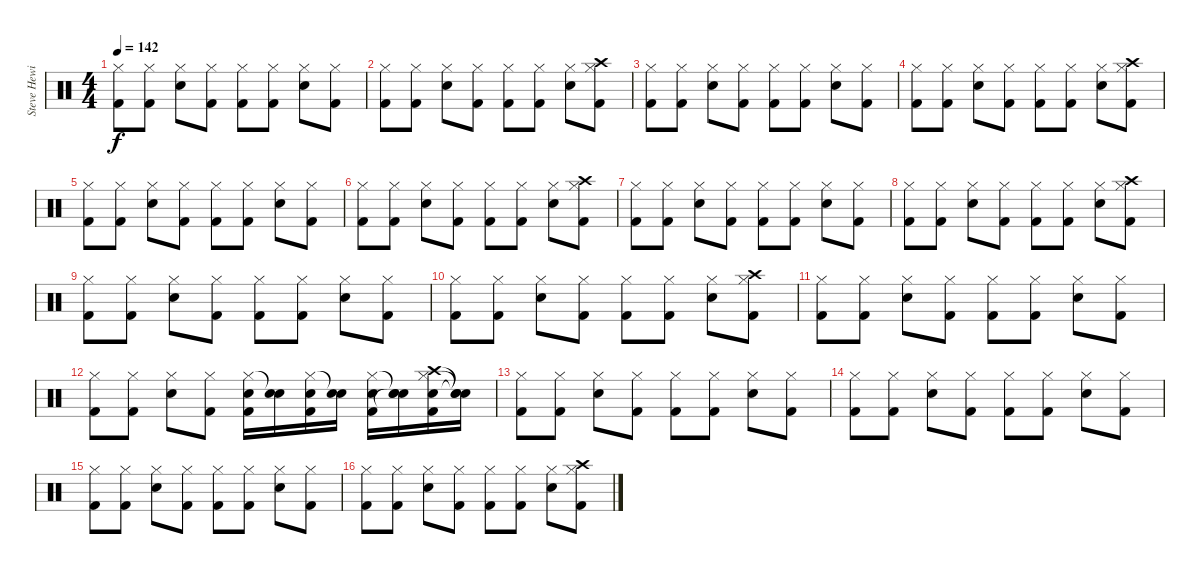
\track ("Steve Hewitt" "Steve Hewi") {instrument percussion}
\staff {score}
\articulation defaults
\ts (4 4)
\tempo 142
\clef neutral
\ks c
("Hi-Hat (closed)" "Kick (hit) 2").8{dy f} ("Hi-Hat (closed)" "Kick (hit) 2").8 ("Hi-Hat (closed)" "Snare (hit) 2").8 ("Hi-Hat (closed)" "Kick (hit) 2").8 ("Hi-Hat (closed)" "Kick (hit) 2").8 ("Hi-Hat (closed)" "Kick (hit) 2").8 ("Hi-Hat (closed)" "Snare (hit) 2").8 ("Hi-Hat (closed)" "Kick (hit) 2").8 |
("Hi-Hat (closed)" "Kick (hit) 2").8 ("Hi-Hat (closed)" "Kick (hit) 2").8 ("Hi-Hat (closed)" "Snare (hit) 2").8 ("Hi-Hat (closed)" "Kick (hit) 2").8 ("Hi-Hat (closed)" "Kick (hit) 2").8 ("Hi-Hat (closed)" "Kick (hit) 2").8 ("Hi-Hat (closed)" "Snare (hit) 2").8 ("Crash high (hit)" "Hi-Hat (closed)" "Kick (hit) 2").8 |
("Hi-Hat (closed)" "Kick (hit) 2").8 ("Hi-Hat (closed)" "Kick (hit) 2").8 ("Hi-Hat (closed)" "Snare (hit) 2").8 ("Hi-Hat (closed)" "Kick (hit) 2").8 ("Hi-Hat (closed)" "Kick (hit) 2").8 ("Hi-Hat (closed)" "Kick (hit) 2").8 ("Hi-Hat (closed)" "Snare (hit) 2").8 ("Hi-Hat (closed)" "Kick (hit) 2").8 |
("Hi-Hat (closed)" "Kick (hit) 2").8 ("Hi-Hat (closed)" "Kick (hit) 2").8 ("Hi-Hat (closed)" "Snare (hit) 2").8 ("Hi-Hat (closed)" "Kick (hit) 2").8 ("Hi-Hat (closed)" "Kick (hit) 2").8 ("Hi-Hat (closed)" "Kick (hit) 2").8 ("Hi-Hat (closed)" "Snare (hit) 2").8 ("Crash high (hit)" "Hi-Hat (closed)" "Kick (hit) 2").8 |
("Hi-Hat (closed)" "Kick (hit) 2").8 ("Hi-Hat (closed)" "Kick (hit) 2").8 ("Hi-Hat (closed)" "Snare (hit) 2").8 ("Hi-Hat (closed)" "Kick (hit) 2").8 ("Hi-Hat (closed)" "Kick (hit) 2").8 ("Hi-Hat (closed)" "Kick (hit) 2").8 ("Hi-Hat (closed)" "Snare (hit) 2").8 ("Hi-Hat (closed)" "Kick (hit) 2").8 |
("Hi-Hat (closed)" "Kick (hit) 2").8 ("Hi-Hat (closed)" "Kick (hit) 2").8 ("Hi-Hat (closed)" "Snare (hit) 2").8 ("Hi-Hat (closed)" "Kick (hit) 2").8 ("Hi-Hat (closed)" "Kick (hit) 2").8 ("Hi-Hat (closed)" "Kick (hit) 2").8 ("Hi-Hat (closed)" "Snare (hit) 2").8 ("Crash high (hit)" "Hi-Hat (closed)" "Kick (hit) 2").8 |
("Hi-Hat (closed)" "Kick (hit) 2").8 ("Hi-Hat (closed)" "Kick (hit) 2").8 ("Hi-Hat (closed)" "Snare (hit) 2").8 ("Hi-Hat (closed)" "Kick (hit) 2").8 ("Hi-Hat (closed)" "Kick (hit) 2").8 ("Hi-Hat (closed)" "Kick (hit) 2").8 ("Hi-Hat (closed)" "Snare (hit) 2").8 ("Hi-Hat (closed)" "Kick (hit) 2").8 |
("Hi-Hat (closed)" "Kick (hit) 2").8 ("Hi-Hat (closed)" "Kick (hit) 2").8 ("Hi-Hat (closed)" "Snare (hit) 2").8 ("Hi-Hat (closed)" "Kick (hit) 2").8 ("Hi-Hat (closed)" "Kick (hit) 2").8 ("Hi-Hat (closed)" "Kick (hit) 2").8 ("Hi-Hat (closed)" "Snare (hit) 2").8 ("Crash high (hit)" "Hi-Hat (closed)" "Kick (hit) 2").8 |
("Hi-Hat (closed)" "Kick (hit) 2").8 ("Hi-Hat (closed)" "Kick (hit) 2").8 ("Hi-Hat (closed)" "Snare (hit) 2").8 ("Hi-Hat (closed)" "Kick (hit) 2").8 ("Hi-Hat (closed)" "Kick (hit) 2").8 ("Hi-Hat (closed)" "Kick (hit) 2").8 ("Hi-Hat (closed)" "Snare (hit) 2").8 ("Hi-Hat (closed)" "Kick (hit) 2").8 |
("Hi-Hat (closed)" "Kick (hit) 2").8 ("Hi-Hat (closed)" "Kick (hit) 2").8 ("Hi-Hat (closed)" "Snare (hit) 2").8 ("Hi-Hat (closed)" "Kick (hit) 2").8 ("Hi-Hat (closed)" "Kick (hit) 2").8 ("Hi-Hat (closed)" "Kick (hit) 2").8 ("Hi-Hat (closed)" "Snare (hit) 2").8 ("Crash high (hit)" "Hi-Hat (closed)" "Kick (hit) 2").8 |
("Hi-Hat (closed)" "Kick (hit) 2").8 ("Hi-Hat (closed)" "Kick (hit) 2").8 ("Hi-Hat (closed)" "Snare (hit) 2").8 ("Hi-Hat (closed)" "Kick (hit) 2").8 ("Hi-Hat (closed)" "Kick (hit) 2").8 ("Hi-Hat (closed)" "Kick (hit) 2").8 ("Hi-Hat (closed)" "Snare (hit) 2").8 ("Hi-Hat (closed)" "Kick (hit) 2").8 |
("Hi-Hat (closed)" "Kick (hit) 2").8 ("Hi-Hat (closed)" "Kick (hit) 2").8 ("Hi-Hat (closed)" "Snare (hit) 2").8 ("Hi-Hat (closed)" "Kick (hit) 2").8 ("Snare (hit) 2" "Hi-Hat (closed)" "Kick (hit) 2").16 ("Snare (hit) 2" "Snare (hit)"{t}).16 ("Snare (hit) 2" "Hi-Hat (closed)" "Kick (hit) 2").16 ("Snare (hit) 2" "Snare (hit)"{t}).16 ("Snare (hit) 2" "Hi-Hat (closed)" "Kick (hit) 2").16 ("Snare (hit) 2" "Snare (hit)"{t} "Snare (hit)"{t}).16 ("Snare (hit) 2" "Crash high (hit)" "Hi-Hat (closed)" "Kick (hit) 2").16 ("Snare (hit)"{t} "Snare (hit)"{t} "Snare (hit)"{t}).16 |
("Hi-Hat (closed)" "Kick (hit) 2").8 ("Hi-Hat (closed)" "Kick (hit) 2").8 ("Hi-Hat (closed)" "Snare (hit) 2").8 ("Hi-Hat (closed)" "Kick (hit) 2").8 ("Hi-Hat (closed)" "Kick (hit) 2").8 ("Hi-Hat (closed)" "Kick (hit) 2").8 ("Hi-Hat (closed)" "Snare (hit) 2").8 ("Hi-Hat (closed)" "Kick (hit) 2").8 |
("Hi-Hat (closed)" "Kick (hit) 2").8 ("Hi-Hat (closed)" "Kick (hit) 2").8 ("Hi-Hat (closed)" "Snare (hit) 2").8 ("Hi-Hat (closed)" "Kick (hit) 2").8 ("Hi-Hat (closed)" "Kick (hit) 2").8 ("Hi-Hat (closed)" "Kick (hit) 2").8 ("Hi-Hat (closed)" "Snare (hit) 2").8 ("Hi-Hat (closed)" "Kick (hit) 2").8 |
("Hi-Hat (closed)" "Kick (hit) 2").8 ("Hi-Hat (closed)" "Kick (hit) 2").8 ("Hi-Hat (closed)" "Snare (hit) 2").8 ("Hi-Hat (closed)" "Kick (hit) 2").8 ("Hi-Hat (closed)" "Kick (hit) 2").8 ("Hi-Hat (closed)" "Kick (hit) 2").8 ("Hi-Hat (closed)" "Snare (hit) 2").8 ("Hi-Hat (closed)" "Kick (hit) 2").8 |
("Hi-Hat (closed)" "Kick (hit) 2").8 ("Hi-Hat (closed)" "Kick (hit) 2").8 ("Hi-Hat (closed)" "Snare (hit) 2").8 ("Hi-Hat (closed)" "Kick (hit) 2").8 ("Hi-Hat (closed)" "Kick (hit) 2").8 ("Hi-Hat (closed)" "Kick (hit) 2").8 ("Hi-Hat (closed)" "Snare (hit) 2").8 ("Crash high (hit)" "Hi-Hat (closed)" "Kick (hit) 2").8
